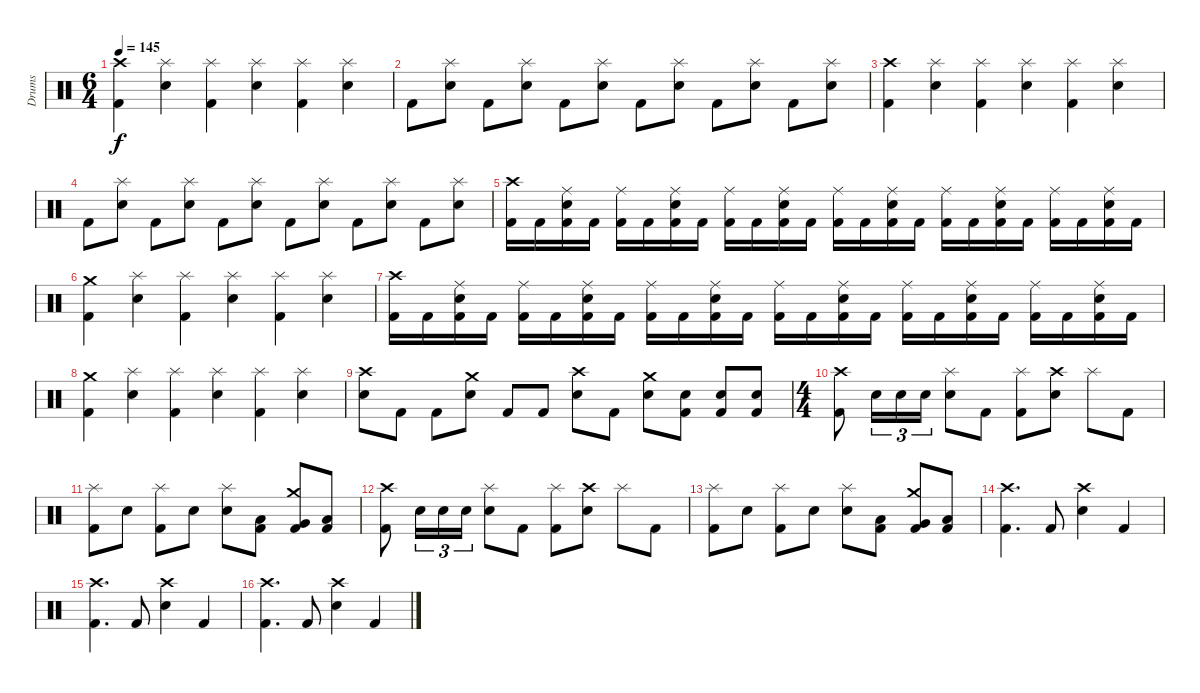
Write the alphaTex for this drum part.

\track ("Drums" "Drums") {instrument percussion}
\staff {score}
\articulation defaults
\ts (6 4)
\tempo 145
\clef neutral
\ks c
("Crash high (hit)" "Kick (hit) 2").4{dy f} ("Splash (hit)" "Snare (hit) 2").4 ("Splash (hit)" "Kick (hit) 2").4 ("Splash (hit)" "Snare (hit) 2").4 ("Splash (hit)" "Kick (hit) 2").4 ("Splash (hit)" "Snare (hit) 2").4 |
"Kick (hit) 2".8 ("Splash (hit)" "Snare (hit) 2").8 "Kick (hit) 2".8 ("Splash (hit)" "Snare (hit) 2").8 "Kick (hit) 2".8 ("Splash (hit)" "Snare (hit) 2").8 "Kick (hit) 2".8 ("Splash (hit)" "Snare (hit) 2").8 "Kick (hit) 2".8 ("Splash (hit)" "Snare (hit) 2").8 "Kick (hit) 2".8 ("Splash (hit)" "Snare (hit) 2").8 |
("Crash high (hit)" "Kick (hit) 2").4 ("Splash (hit)" "Snare (hit) 2").4 ("Splash (hit)" "Kick (hit) 2").4 ("Splash (hit)" "Snare (hit) 2").4 ("Splash (hit)" "Kick (hit) 2").4 ("Splash (hit)" "Snare (hit) 2").4 |
"Kick (hit) 2".8 ("Splash (hit)" "Snare (hit) 2").8 "Kick (hit) 2".8 ("Splash (hit)" "Snare (hit) 2").8 "Kick (hit) 2".8 ("Splash (hit)" "Snare (hit) 2").8 "Kick (hit) 2".8 ("Splash (hit)" "Snare (hit) 2").8 "Kick (hit) 2".8 ("Splash (hit)" "Snare (hit) 2").8 "Kick (hit) 2".8 ("Splash (hit)" "Snare (hit) 2").8 |
("Crash high (hit)" "Kick (hit) 2").16 "Kick (hit) 2".16 ("Ride (middle)" "Snare (hit) 2" "Kick (hit) 2").16 "Kick (hit) 2".16 ("Ride (middle)" "Kick (hit) 2").16 "Kick (hit) 2".16 ("Ride (middle)" "Snare (hit) 2" "Kick (hit) 2").16 "Kick (hit) 2".16 ("Ride (middle)" "Kick (hit) 2").16 "Kick (hit) 2".16 ("Ride (middle)" "Snare (hit) 2" "Kick (hit) 2").16 "Kick (hit) 2".16 ("Ride (middle)" "Kick (hit) 2").16 "Kick (hit) 2".16 ("Ride (middle)" "Snare (hit) 2" "Kick (hit) 2").16 "Kick (hit) 2".16 ("Ride (middle)" "Kick (hit) 2").16 "Kick (hit) 2".16 ("Ride (middle)" "Snare (hit) 2" "Kick (hit) 2").16 "Kick (hit) 2".16 ("Ride (middle)" "Kick (hit) 2").16 "Kick (hit) 2".16 ("Ride (middle)" "Snare (hit) 2" "Kick (hit) 2").16 "Kick (hit) 2".16 |
("Crash medium (hit)" "Kick (hit) 2").4 ("Splash (hit)" "Snare (hit) 2").4 ("Splash (hit)" "Kick (hit) 2").4 ("Splash (hit)" "Snare (hit) 2").4 ("Splash (hit)" "Kick (hit) 2").4 ("Splash (hit)" "Snare (hit) 2").4 |
("Crash high (hit)" "Kick (hit) 2").16 "Kick (hit) 2".16 ("Ride (middle)" "Snare (hit) 2" "Kick (hit) 2").16 "Kick (hit) 2".16 ("Ride (middle)" "Kick (hit) 2").16 "Kick (hit) 2".16 ("Ride (middle)" "Snare (hit) 2" "Kick (hit) 2").16 "Kick (hit) 2".16 ("Ride (middle)" "Kick (hit) 2").16 "Kick (hit) 2".16 ("Ride (middle)" "Snare (hit) 2" "Kick (hit) 2").16 "Kick (hit) 2".16 ("Ride (middle)" "Kick (hit) 2").16 "Kick (hit) 2".16 ("Ride (middle)" "Snare (hit) 2" "Kick (hit) 2").16 "Kick (hit) 2".16 ("Ride (middle)" "Kick (hit) 2").16 "Kick (hit) 2".16 ("Ride (middle)" "Snare (hit) 2" "Kick (hit) 2").16 "Kick (hit) 2".16 ("Ride (middle)" "Kick (hit) 2").16 "Kick (hit) 2".16 ("Ride (middle)" "Snare (hit) 2" "Kick (hit) 2").16 "Kick (hit) 2".16 |
("Crash medium (hit)" "Kick (hit) 2").4 ("Splash (hit)" "Snare (hit) 2").4 ("Splash (hit)" "Kick (hit) 2").4 ("Splash (hit)" "Snare (hit) 2").4 ("Splash (hit)" "Kick (hit) 2").4 ("Splash (hit)" "Snare (hit) 2").4 |
("Crash high (hit)" "Snare (hit) 2").8 "Kick (hit) 2".8 "Kick (hit) 2".8 ("Crash medium (hit)" "Snare (hit) 2").8 "Kick (hit) 2".8 "Kick (hit) 2".8 ("Crash high (hit)" "Snare (hit) 2").8 "Kick (hit) 2".8 ("Crash medium (hit)" "Snare (hit) 2").8 ("Snare (hit) 2" "Kick (hit) 2").8 ("Snare (hit) 2" "Kick (hit) 2").8 ("Snare (hit) 2" "Kick (hit) 2").8 |
\ts (4 4)
("Crash high (hit)" "Kick (hit) 2").8 "Snare (hit) 2".16{tu (3 2)} "Snare (hit) 2".16{tu (3 2)} "Snare (hit) 2".16{tu (3 2)} ("Splash (hit)" "Snare (hit) 2").8 "Kick (hit) 2".8 ("Splash (hit)" "Kick (hit) 2").8 ("Crash high (hit)" "Snare (hit) 2").8 "Splash (hit)".8 "Kick (hit) 2".8 |
("Splash (hit)" "Kick (hit) 2").8 "Snare (hit) 2".8 ("Splash (hit)" "Kick (hit) 2").8 "Snare (hit) 2".8 ("Splash (hit)" "Snare (hit) 2").8 ("Low Tom (hit)" "Kick (hit) 2").8 ("Crash medium (hit)" "Very Low Tom (hit)" "Kick (hit) 2").8 ("Low Floor Tom (hit)" "Kick (hit) 2").8 |
("Crash high (hit)" "Kick (hit) 2").8 "Snare (hit) 2".16{tu (3 2)} "Snare (hit) 2".16{tu (3 2)} "Snare (hit) 2".16{tu (3 2)} ("Splash (hit)" "Snare (hit) 2").8 "Kick (hit) 2".8 ("Splash (hit)" "Kick (hit) 2").8 ("Crash high (hit)" "Snare (hit) 2").8 "Splash (hit)".8 "Kick (hit) 2".8 |
("Splash (hit)" "Kick (hit) 2").8 "Snare (hit) 2".8 ("Splash (hit)" "Kick (hit) 2").8 "Snare (hit) 2".8 ("Splash (hit)" "Snare (hit) 2").8 ("Low Tom (hit)" "Kick (hit) 2").8 ("Crash medium (hit)" "Very Low Tom (hit)" "Kick (hit) 2").8 ("Low Floor Tom (hit)" "Kick (hit) 2").8 |
("Crash high (hit)" "Kick (hit) 2").4{d} "Kick (hit) 2".8 ("Crash high (hit)" "Snare (hit) 2").4 "Kick (hit) 2".4 |
("Crash high (hit)" "Kick (hit) 2").4{d} "Kick (hit) 2".8 ("Crash high (hit)" "Snare (hit) 2").4 "Kick (hit) 2".4 |
("Crash high (hit)" "Kick (hit) 2").4{d} "Kick (hit) 2".8 ("Crash high (hit)" "Snare (hit) 2").4 "Kick (hit) 2".4
